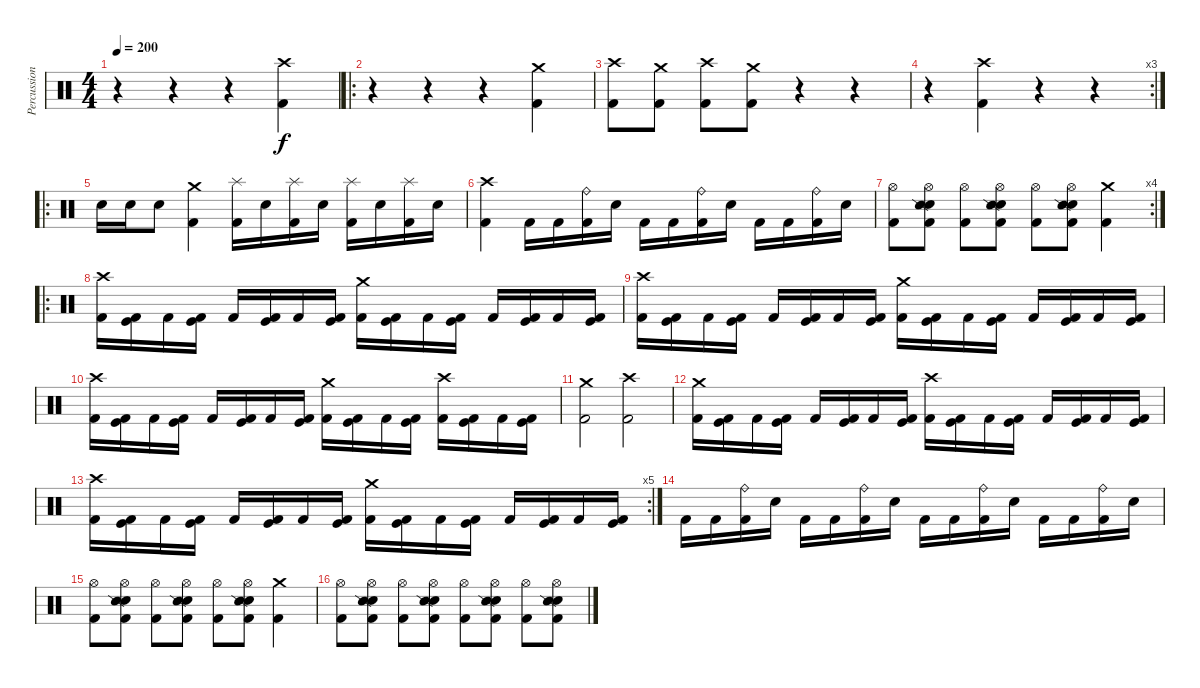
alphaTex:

\track ("Percussion" "Percussion") {instrument percussion}
\staff {score}
\articulation defaults
\ts (4 4)
\tempo 200
\clef neutral
\ks c
r.4{dy f} r.4 r.4 ("Crash high (hit)" "Kick (hit) 2").4 |
\ro
r.4 r.4 r.4 ("Crash medium (hit)" "Kick (hit) 2").4 |
("Crash high (hit)" "Kick (hit) 2").8 ("Crash medium (hit)" "Kick (hit) 2").8 ("Crash high (hit)" "Kick (hit) 2").8 ("Crash medium (hit)" "Kick (hit) 2").8 r.4 r.4 |
\rc 3
r.4 ("Crash high (hit)" "Kick (hit) 2").4 r.4 r.4 |
\ro "Electric Snare (hit)".16 "Electric Snare (hit)".16 "Electric Snare (hit)".8
("Crash medium (hit)" "Kick (hit) 2").4 ("Splash (hit)" "Kick (hit) 2").16 "Electric Snare (hit)".16 ("Splash (hit)" "Kick (hit) 2").16 "Electric Snare (hit)".16 ("Splash (hit)" "Kick (hit) 2").16 "Electric Snare (hit)".16 ("Splash (hit)" "Kick (hit) 2").16 "Electric Snare (hit)".16 |
("Crash high (hit)" "Kick (hit) 2").4 "Kick (hit) 2".16 "Kick (hit) 2".16 ("Ride (bell)" "Kick (hit) 2").16 "Electric Snare (hit)".16 "Kick (hit) 2".16 "Kick (hit) 2".16 ("Ride (bell)" "Kick (hit) 2").16 "Electric Snare (hit)".16 "Kick (hit) 2".16 "Kick (hit) 2".16 ("Ride (bell)" "Kick (hit) 2").16 "Electric Snare (hit)".16 |
\rc 4
("Hi-Hat (open)" "Kick (hit) 2").8 ("Hi-Hat (open)" "Electric Snare (hit)" "Snare (side stick) 2" "Kick (hit) 2").8 ("Hi-Hat (open)" "Kick (hit) 2").8 ("Hi-Hat (open)" "Electric Snare (hit)" "Snare (side stick) 2" "Kick (hit) 2").8 ("Hi-Hat (open)" "Kick (hit) 2").8 ("Hi-Hat (open)" "Electric Snare (hit)" "Snare (side stick) 2" "Kick (hit) 2").8 ("Crash medium (hit)" "Kick (hit) 2").4 |
\ro
("Crash high (hit)" "Kick (hit) 2").16 ("Kick (hit)" "Kick (hit) 2").16 "Kick (hit) 2".16 ("Kick (hit)" "Kick (hit) 2").16 "Kick (hit) 2".16 ("Kick (hit)" "Kick (hit) 2").16 "Kick (hit) 2".16 ("Kick (hit)" "Kick (hit) 2").16 ("Crash medium (hit)" "Kick (hit) 2").16 ("Kick (hit)" "Kick (hit) 2").16 "Kick (hit) 2".16 ("Kick (hit)" "Kick (hit) 2").16 "Kick (hit) 2".16 ("Kick (hit)" "Kick (hit) 2").16 "Kick (hit) 2".16 ("Kick (hit)" "Kick (hit) 2").16 |
("Crash high (hit)" "Kick (hit) 2").16 ("Kick (hit)" "Kick (hit) 2").16 "Kick (hit) 2".16 ("Kick (hit)" "Kick (hit) 2").16 "Kick (hit) 2".16 ("Kick (hit)" "Kick (hit) 2").16 "Kick (hit) 2".16 ("Kick (hit)" "Kick (hit) 2").16 ("Crash medium (hit)" "Kick (hit) 2").16 ("Kick (hit)" "Kick (hit) 2").16 "Kick (hit) 2".16 ("Kick (hit)" "Kick (hit) 2").16 "Kick (hit) 2".16 ("Kick (hit)" "Kick (hit) 2").16 "Kick (hit) 2".16 ("Kick (hit)" "Kick (hit) 2").16 |
("Crash high (hit)" "Kick (hit) 2").16 ("Kick (hit)" "Kick (hit) 2").16 "Kick (hit) 2".16 ("Kick (hit)" "Kick (hit) 2").16 "Kick (hit) 2".16 ("Kick (hit)" "Kick (hit) 2").16 "Kick (hit) 2".16 ("Kick (hit)" "Kick (hit) 2").16 ("Crash medium (hit)" "Kick (hit) 2").16 ("Kick (hit)" "Kick (hit) 2").16 "Kick (hit) 2".16 ("Kick (hit)" "Kick (hit) 2").16 ("Crash high (hit)" "Kick (hit) 2").16 ("Kick (hit)" "Kick (hit) 2").16 "Kick (hit) 2".16 ("Kick (hit)" "Kick (hit) 2").16 |
("Crash medium (hit)" "Kick (hit) 2").2 ("Crash high (hit)" "Kick (hit) 2").2 |
("Crash medium (hit)" "Kick (hit) 2").16 ("Kick (hit)" "Kick (hit) 2").16 "Kick (hit) 2".16 ("Kick (hit)" "Kick (hit) 2").16 "Kick (hit) 2".16 ("Kick (hit)" "Kick (hit) 2").16 "Kick (hit) 2".16 ("Kick (hit)" "Kick (hit) 2").16 ("Crash high (hit)" "Kick (hit) 2").16 ("Kick (hit)" "Kick (hit) 2").16 "Kick (hit) 2".16 ("Kick (hit)" "Kick (hit) 2").16 "Kick (hit) 2".16 ("Kick (hit)" "Kick (hit) 2").16 "Kick (hit) 2".16 ("Kick (hit)" "Kick (hit) 2").16 |
\rc 5
("Crash high (hit)" "Kick (hit) 2").16 ("Kick (hit)" "Kick (hit) 2").16 "Kick (hit) 2".16 ("Kick (hit)" "Kick (hit) 2").16 "Kick (hit) 2".16 ("Kick (hit)" "Kick (hit) 2").16 "Kick (hit) 2".16 ("Kick (hit)" "Kick (hit) 2").16 ("Crash medium (hit)" "Kick (hit) 2").16 ("Kick (hit)" "Kick (hit) 2").16 "Kick (hit) 2".16 ("Kick (hit)" "Kick (hit) 2").16 "Kick (hit) 2".16 ("Kick (hit)" "Kick (hit) 2").16 "Kick (hit) 2".16 ("Kick (hit)" "Kick (hit) 2").16 |
"Kick (hit) 2".16 "Kick (hit) 2".16 ("Ride (bell)" "Kick (hit) 2").16 "Electric Snare (hit)".16 "Kick (hit) 2".16 "Kick (hit) 2".16 ("Ride (bell)" "Kick (hit) 2").16 "Electric Snare (hit)".16 "Kick (hit) 2".16 "Kick (hit) 2".16 ("Ride (bell)" "Kick (hit) 2").16 "Electric Snare (hit)".16 "Kick (hit) 2".16 "Kick (hit) 2".16 ("Ride (bell)" "Kick (hit) 2").16 "Electric Snare (hit)".16 |
("Hi-Hat (open)" "Kick (hit) 2").8 ("Hi-Hat (open)" "Electric Snare (hit)" "Snare (side stick) 2" "Kick (hit) 2").8 ("Hi-Hat (open)" "Kick (hit) 2").8 ("Hi-Hat (open)" "Electric Snare (hit)" "Snare (side stick) 2" "Kick (hit) 2").8 ("Hi-Hat (open)" "Kick (hit) 2").8 ("Hi-Hat (open)" "Electric Snare (hit)" "Snare (side stick) 2" "Kick (hit) 2").8 ("Crash medium (hit)" "Kick (hit) 2").4 |
("Hi-Hat (open)" "Kick (hit) 2").8 ("Hi-Hat (open)" "Electric Snare (hit)" "Snare (side stick) 2" "Kick (hit) 2").8 ("Hi-Hat (open)" "Kick (hit) 2").8 ("Hi-Hat (open)" "Electric Snare (hit)" "Snare (side stick) 2" "Kick (hit) 2").8 ("Hi-Hat (open)" "Kick (hit) 2").8 ("Hi-Hat (open)" "Electric Snare (hit)" "Snare (side stick) 2" "Kick (hit) 2").8 ("Hi-Hat (open)" "Kick (hit) 2").8 ("Hi-Hat (open)" "Electric Snare (hit)" "Snare (side stick) 2" "Kick (hit) 2").8
